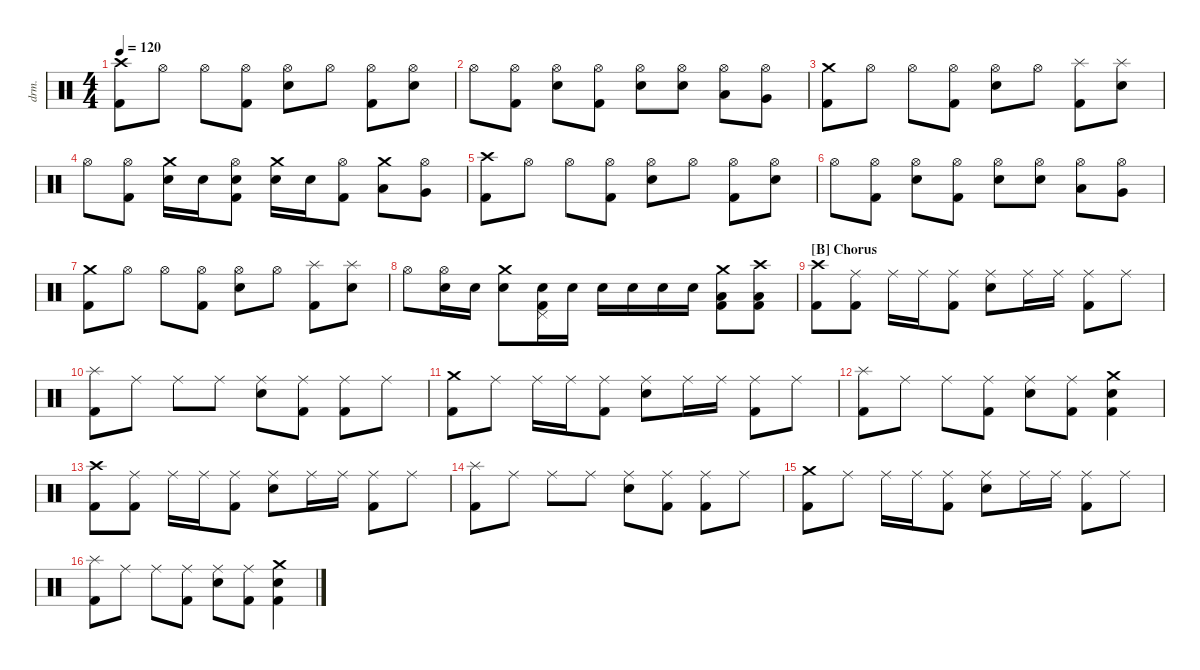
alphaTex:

\defaultSystemsLayout 4
\hideDynamics
\bracketExtendMode nobrackets
\track ("Drumkit" "drm.") {instrument percussion}
\staff {score}
\articulation defaults
\ts (4 4)
\tempo 120
\clef neutral
\ks c
("Crash high (hit)" "Kick (hit) 2").8{dy mf beam Down} "Hi-Hat (open)".8{beam Down} "Hi-Hat (open)".8{beam Down} ("Hi-Hat (open)" "Kick (hit) 2").8{beam Down} ("Hi-Hat (open)" "Snare (hit) 2").8{beam Down} "Hi-Hat (open)".8{beam Down} ("Hi-Hat (open)" "Kick (hit) 2").8{beam Down} ("Hi-Hat (open)" "Snare (hit) 2").8{beam Down} |
"Hi-Hat (open)".8{beam Down} ("Hi-Hat (open)" "Kick (hit) 2").8{beam Down} ("Hi-Hat (open)" "Snare (hit) 2").8{beam Down} ("Hi-Hat (open)" "Kick (hit) 2").8{beam Down} ("Hi-Hat (open)" "Snare (hit) 2").8{beam Down} ("Hi-Hat (open)" "Snare (hit) 2").8{beam Down} ("Hi-Hat (open)" "Low Tom (hit)").8{beam Down} ("Hi-Hat (open)" "Very Low Tom (hit)").8{beam Down} |
("Crash medium (hit)" "Kick (hit) 2").8{beam Down} "Hi-Hat (open)".8{beam Down} "Hi-Hat (open)".8{beam Down} ("Hi-Hat (open)" "Kick (hit) 2").8{beam Down} ("Hi-Hat (open)" "Snare (hit) 2").8{beam Down} "Hi-Hat (open)".8{beam Down} ("Splash (hit)" "Kick (hit) 2").8{beam Down} ("Splash (hit)" "Snare (hit) 2").8{beam Down} |
"Hi-Hat (open)".8{beam Down} ("Hi-Hat (open)" "Kick (hit) 2").8{beam Down} ("Crash medium (hit)" "Snare (hit) 2").16{beam Down} "Snare (hit) 2".16{beam Down} ("Hi-Hat (open)" "Kick (hit) 2" "Snare (hit) 2").8{beam Down} ("Crash medium (hit)" "Snare (hit) 2").16{beam Down} "Snare (hit) 2".16{beam Down} ("Hi-Hat (open)" "Kick (hit) 2").8{beam Down} ("Crash medium (hit)" "Low Tom (hit)").8{beam Down} ("Hi-Hat (open)" "Very Low Tom (hit)").8{beam Down} |
("Crash high (hit)" "Kick (hit) 2").8{beam Down} "Hi-Hat (open)".8{beam Down} "Hi-Hat (open)".8{beam Down} ("Hi-Hat (open)" "Kick (hit) 2").8{beam Down} ("Hi-Hat (open)" "Snare (hit) 2").8{beam Down} "Hi-Hat (open)".8{beam Down} ("Hi-Hat (open)" "Kick (hit) 2").8{beam Down} ("Hi-Hat (open)" "Snare (hit) 2").8{beam Down} |
"Hi-Hat (open)".8{beam Down} ("Hi-Hat (open)" "Kick (hit) 2").8{beam Down} ("Hi-Hat (open)" "Snare (hit) 2").8{beam Down} ("Hi-Hat (open)" "Kick (hit) 2").8{beam Down} ("Hi-Hat (open)" "Snare (hit) 2").8{beam Down} ("Hi-Hat (open)" "Snare (hit) 2").8{beam Down} ("Hi-Hat (open)" "Low Tom (hit)").8{beam Down} ("Hi-Hat (open)" "Very Low Tom (hit)").8{beam Down} |
("Crash medium (hit)" "Kick (hit) 2").8{beam Down} "Hi-Hat (open)".8{beam Down} "Hi-Hat (open)".8{beam Down} ("Hi-Hat (open)" "Kick (hit) 2").8{beam Down} ("Hi-Hat (open)" "Snare (hit) 2").8{beam Down} "Hi-Hat (open)".8{beam Down} ("Splash (hit)" "Kick (hit) 2").8{beam Down} ("Splash (hit)" "Snare (hit) 2").8{beam Down} |
"Hi-Hat (open)".8{beam Down} ("Hi-Hat (open)" "Snare (hit) 2").16{beam Down} "Snare (hit) 2".16{beam Down} ("Crash medium (hit)" "Snare (hit) 2").8{beam Down} ("Pedal Hi-Hat (hit)" "Kick (hit) 2" "Snare (hit) 2").16{beam Down} "Snare (hit) 2".16{beam Down} "Snare (hit) 2".16{beam Down} "Snare (hit) 2".16{beam Down} "Snare (hit) 2".16{beam Down} "Snare (hit) 2".16{beam Down} ("Crash medium (hit)" "Kick (hit) 2" "Low Tom (hit)").8{beam Down} ("Crash high (hit)" "Low Tom (hit)" "Kick (hit) 2").8{beam Down} |
\section ("B" "Chorus")
("Crash high (hit)" "Kick (hit) 2").8{dy f beam Down} ("Ride (middle)" "Kick (hit) 2").8{beam Down} "Ride (middle)".16{beam Down} "Ride (middle)".16{beam Down} ("Ride (middle)" "Kick (hit) 2").8{beam Down} ("Ride (middle)" "Snare (hit) 2").8{beam Down} "Ride (middle)".16{beam Down} "Ride (middle)".16{beam Down} ("Ride (middle)" "Kick (hit) 2").8{beam Down} "Ride (middle)".8{beam Down} |
("Kick (hit) 2" "Splash (hit)").8{beam Down} "Ride (middle)".8{beam Down} "Ride (middle)".8{beam Down} "Ride (middle)".8{beam Down} ("Ride (middle)" "Snare (hit) 2").8{beam Down} ("Ride (middle)" "Kick (hit) 2").8{beam Down} ("Ride (middle)" "Kick (hit) 2").8{beam Down} "Ride (middle)".8{beam Down} |
("Crash medium (hit)" "Kick (hit) 2").8{beam Down} "Ride (middle)".8{beam Down} "Ride (middle)".16{beam Down} "Ride (middle)".16{beam Down} ("Ride (middle)" "Kick (hit) 2").8{beam Down} ("Ride (middle)" "Snare (hit) 2").8{beam Down} "Ride (middle)".16{beam Down} "Ride (middle)".16{beam Down} ("Ride (middle)" "Kick (hit) 2").8{beam Down} "Ride (middle)".8{beam Down} |
("Kick (hit) 2" "Splash (hit)").8{beam Down} "Ride (middle)".8{beam Down} "Ride (middle)".8{beam Down} ("Ride (middle)" "Kick (hit) 2").8{beam Down} ("Ride (middle)" "Snare (hit) 2").8{beam Down} ("Ride (middle)" "Kick (hit) 2").8{beam Down} ("Crash medium (hit)" "Kick (hit) 2" "Snare (hit) 2").4{beam Down} |
("Crash high (hit)" "Kick (hit) 2").8{beam Down} ("Ride (middle)" "Kick (hit) 2").8{beam Down} "Ride (middle)".16{beam Down} "Ride (middle)".16{beam Down} ("Ride (middle)" "Kick (hit) 2").8{beam Down} ("Ride (middle)" "Snare (hit) 2").8{beam Down} "Ride (middle)".16{beam Down} "Ride (middle)".16{beam Down} ("Ride (middle)" "Kick (hit) 2").8{beam Down} "Ride (middle)".8{beam Down} |
("Kick (hit) 2" "Splash (hit)").8{beam Down} "Ride (middle)".8{beam Down} "Ride (middle)".8{beam Down} "Ride (middle)".8{beam Down} ("Ride (middle)" "Snare (hit) 2").8{beam Down} ("Ride (middle)" "Kick (hit) 2").8{beam Down} ("Ride (middle)" "Kick (hit) 2").8{beam Down} "Ride (middle)".8{beam Down} |
("Crash medium (hit)" "Kick (hit) 2").8{beam Down} "Ride (middle)".8{beam Down} "Ride (middle)".16{beam Down} "Ride (middle)".16{beam Down} ("Ride (middle)" "Kick (hit) 2").8{beam Down} ("Ride (middle)" "Snare (hit) 2").8{beam Down} "Ride (middle)".16{beam Down} "Ride (middle)".16{beam Down} ("Ride (middle)" "Kick (hit) 2").8{beam Down} "Ride (middle)".8{beam Down} |
("Kick (hit) 2" "Splash (hit)").8{beam Down} "Ride (middle)".8{beam Down} "Ride (middle)".8{beam Down} ("Ride (middle)" "Kick (hit) 2").8{beam Down} ("Ride (middle)" "Snare (hit) 2").8{beam Down} ("Ride (middle)" "Kick (hit) 2").8{beam Down} ("Crash medium (hit)" "Kick (hit) 2" "Snare (hit) 2").4{beam Down}
